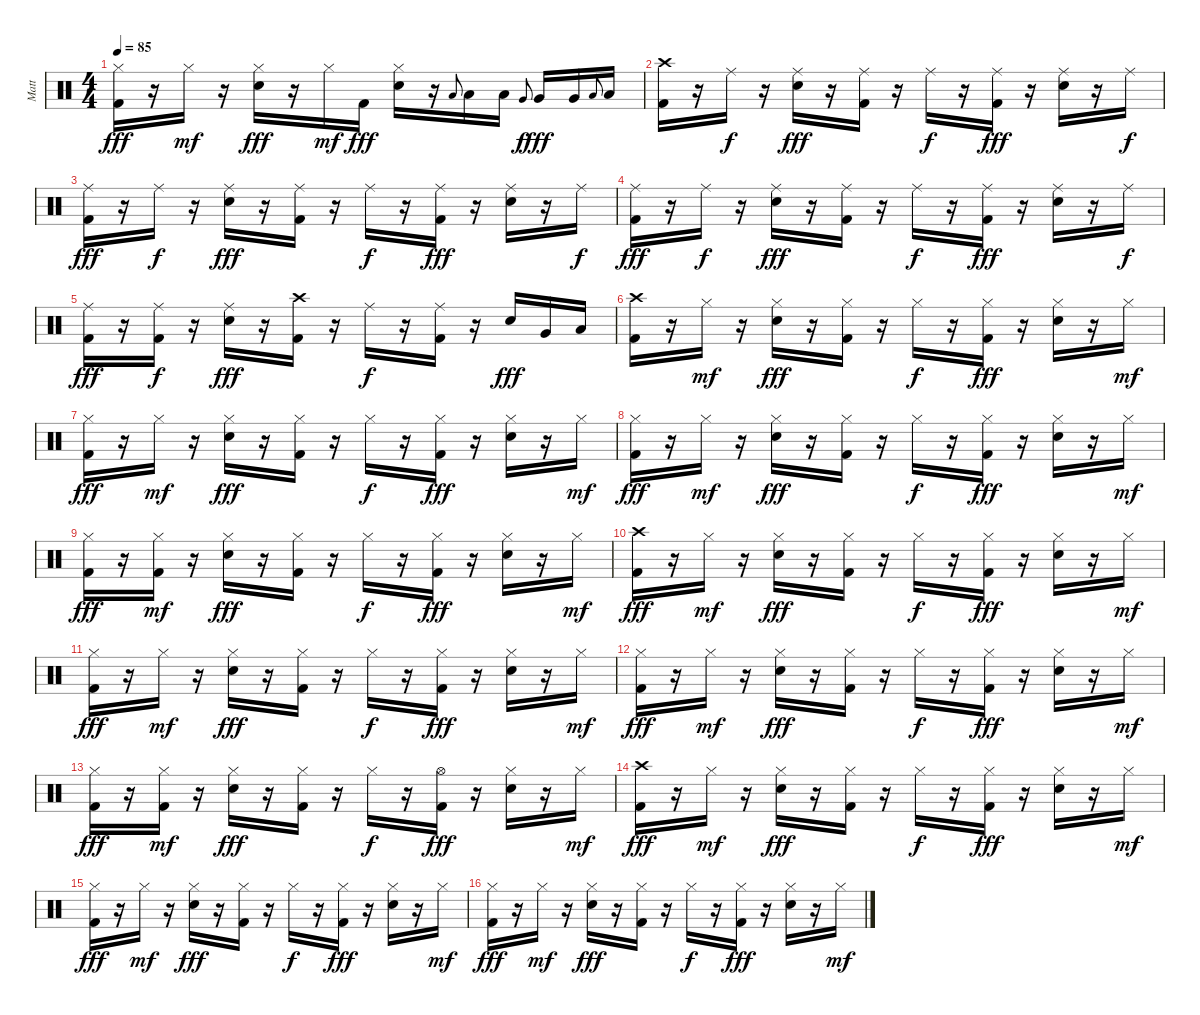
\track ("Matt" "Matt") {instrument percussion}
\staff {score}
\articulation defaults
\ts (4 4)
\tempo 85
\clef neutral
\ks c
("Hi-Hat (closed)" "Kick (hit) 2").16{dy fff} r.16 "Hi-Hat (closed)".16{dy mf} r.16 ("Hi-Hat (closed)" "Electric Snare (hit)").16{dy fff} r.16 "Hi-Hat (closed)".16{dy mf} "Kick (hit) 2".16{dy fff} ("Hi-Hat (closed)" "Electric Snare (hit)").16 r.16 "Low Tom (hit)".8{gr onbeat} "Low Tom (hit)".16 "Low Tom (hit)".16 "Very Low Tom (hit)".8{gr onbeat dy f} "Very Low Tom (hit)".16{dy fff} "Very Low Tom (hit)".16 "Low Floor Tom (hit)".8{gr onbeat} "Low Floor Tom (hit)".16 |
("Crash high (hit)" "Kick (hit) 2").16 r.16 "Ride (middle)".16{dy f} r.16 ("Ride (middle)" "Electric Snare (hit)").16{dy fff} r.16 ("Ride (middle)" "Kick (hit) 2").16 r.16 "Ride (middle)".16{dy f} r.16 ("Ride (middle)" "Kick (hit) 2").16{dy fff} r.16 ("Ride (middle)" "Electric Snare (hit)").16 r.16 "Ride (middle)".16{dy f} |
("Ride (middle)" "Kick (hit) 2").16{dy fff} r.16 "Ride (middle)".16{dy f} r.16 ("Ride (middle)" "Electric Snare (hit)").16{dy fff} r.16 ("Ride (middle)" "Kick (hit) 2").16 r.16 "Ride (middle)".16{dy f} r.16 ("Ride (middle)" "Kick (hit) 2").16{dy fff} r.16 ("Ride (middle)" "Electric Snare (hit)").16 r.16 "Ride (middle)".16{dy f} |
("Ride (middle)" "Kick (hit) 2").16{dy fff} r.16 "Ride (middle)".16{dy f} r.16 ("Ride (middle)" "Electric Snare (hit)").16{dy fff} r.16 ("Ride (middle)" "Kick (hit) 2").16 r.16 "Ride (middle)".16{dy f} r.16 ("Ride (middle)" "Kick (hit) 2").16{dy fff} r.16 ("Ride (middle)" "Electric Snare (hit)").16 r.16 "Ride (middle)".16{dy f} |
("Ride (middle)" "Kick (hit) 2").16{dy fff} r.16 ("Ride (middle)" "Kick (hit) 2").16{dy f} r.16 ("Ride (middle)" "Electric Snare (hit)").16{dy fff} r.16 ("Crash high (hit)" "Kick (hit) 2").16 r.16 "Ride (middle)".16{dy f} r.16 ("Ride (middle)" "Kick (hit) 2").16 r.16 "Electric Snare (hit)".16{dy fff} "Very Low Tom (hit)".16 "Low Floor Tom (hit)".16 |
("Crash high (hit)" "Kick (hit) 2").16 r.16 "Hi-Hat (closed)".16{dy mf} r.16 ("Hi-Hat (closed)" "Electric Snare (hit)").16{dy fff} r.16 ("Hi-Hat (closed)" "Kick (hit) 2").16 r.16 "Hi-Hat (closed)".16{dy f} r.16 ("Hi-Hat (closed)" "Kick (hit) 2").16{dy fff} r.16 ("Hi-Hat (closed)" "Electric Snare (hit)").16 r.16 "Hi-Hat (closed)".16{dy mf} |
("Hi-Hat (closed)" "Kick (hit) 2").16{dy fff} r.16 "Hi-Hat (closed)".16{dy mf} r.16 ("Hi-Hat (closed)" "Electric Snare (hit)").16{dy fff} r.16 ("Hi-Hat (closed)" "Kick (hit) 2").16 r.16 "Hi-Hat (closed)".16{dy f} r.16 ("Hi-Hat (closed)" "Kick (hit) 2").16{dy fff} r.16 ("Hi-Hat (closed)" "Electric Snare (hit)").16 r.16 "Hi-Hat (closed)".16{dy mf} |
("Hi-Hat (closed)" "Kick (hit) 2").16{dy fff} r.16 "Hi-Hat (closed)".16{dy mf} r.16 ("Hi-Hat (closed)" "Electric Snare (hit)").16{dy fff} r.16 ("Hi-Hat (closed)" "Kick (hit) 2").16 r.16 "Hi-Hat (closed)".16{dy f} r.16 ("Hi-Hat (closed)" "Kick (hit) 2").16{dy fff} r.16 ("Hi-Hat (closed)" "Electric Snare (hit)").16 r.16 "Hi-Hat (closed)".16{dy mf} |
("Hi-Hat (closed)" "Kick (hit) 2").16{dy fff} r.16 ("Hi-Hat (closed)" "Kick (hit) 2").16{dy mf} r.16 ("Hi-Hat (closed)" "Electric Snare (hit)").16{dy fff} r.16 ("Hi-Hat (closed)" "Kick (hit) 2").16 r.16 "Hi-Hat (closed)".16{dy f} r.16 ("Hi-Hat (closed)" "Kick (hit) 2").16{dy fff} r.16 ("Hi-Hat (closed)" "Electric Snare (hit)").16 r.16 "Hi-Hat (closed)".16{dy mf} |
("Crash high (hit)" "Kick (hit) 2").16{dy fff} r.16 "Hi-Hat (closed)".16{dy mf} r.16 ("Hi-Hat (closed)" "Electric Snare (hit)").16{dy fff} r.16 ("Hi-Hat (closed)" "Kick (hit) 2").16 r.16 "Hi-Hat (closed)".16{dy f} r.16 ("Hi-Hat (closed)" "Kick (hit) 2").16{dy fff} r.16 ("Hi-Hat (closed)" "Electric Snare (hit)").16 r.16 "Hi-Hat (closed)".16{dy mf} |
("Hi-Hat (closed)" "Kick (hit) 2").16{dy fff} r.16 "Hi-Hat (closed)".16{dy mf} r.16 ("Hi-Hat (closed)" "Electric Snare (hit)").16{dy fff} r.16 ("Hi-Hat (closed)" "Kick (hit) 2").16 r.16 "Hi-Hat (closed)".16{dy f} r.16 ("Hi-Hat (closed)" "Kick (hit) 2").16{dy fff} r.16 ("Hi-Hat (closed)" "Electric Snare (hit)").16 r.16 "Hi-Hat (closed)".16{dy mf} |
("Hi-Hat (closed)" "Kick (hit) 2").16{dy fff} r.16 "Hi-Hat (closed)".16{dy mf} r.16 ("Hi-Hat (closed)" "Electric Snare (hit)").16{dy fff} r.16 ("Hi-Hat (closed)" "Kick (hit) 2").16 r.16 "Hi-Hat (closed)".16{dy f} r.16 ("Hi-Hat (closed)" "Kick (hit) 2").16{dy fff} r.16 ("Hi-Hat (closed)" "Electric Snare (hit)").16 r.16 "Hi-Hat (closed)".16{dy mf} |
("Hi-Hat (closed)" "Kick (hit) 2").16{dy fff} r.16 ("Hi-Hat (closed)" "Kick (hit) 2").16{dy mf} r.16 ("Hi-Hat (closed)" "Electric Snare (hit)").16{dy fff} r.16 ("Hi-Hat (closed)" "Kick (hit) 2").16 r.16 "Hi-Hat (closed)".16{dy f} r.16 ("Hi-Hat (open)" "Kick (hit) 2").16{dy fff} r.16 ("Hi-Hat (closed)" "Electric Snare (hit)").16 r.16 "Hi-Hat (closed)".16{dy mf} |
("Crash high (hit)" "Kick (hit) 2").16{dy fff} r.16 "Hi-Hat (closed)".16{dy mf} r.16 ("Hi-Hat (closed)" "Electric Snare (hit)").16{dy fff} r.16 ("Hi-Hat (closed)" "Kick (hit) 2").16 r.16 "Hi-Hat (closed)".16{dy f} r.16 ("Hi-Hat (closed)" "Kick (hit) 2").16{dy fff} r.16 ("Hi-Hat (closed)" "Electric Snare (hit)").16 r.16 "Hi-Hat (closed)".16{dy mf} |
("Hi-Hat (closed)" "Kick (hit) 2").16{dy fff} r.16 "Hi-Hat (closed)".16{dy mf} r.16 ("Hi-Hat (closed)" "Electric Snare (hit)").16{dy fff} r.16 ("Hi-Hat (closed)" "Kick (hit) 2").16 r.16 "Hi-Hat (closed)".16{dy f} r.16 ("Hi-Hat (closed)" "Kick (hit) 2").16{dy fff} r.16 ("Hi-Hat (closed)" "Electric Snare (hit)").16 r.16 "Hi-Hat (closed)".16{dy mf} |
("Hi-Hat (closed)" "Kick (hit) 2").16{dy fff} r.16 "Hi-Hat (closed)".16{dy mf} r.16 ("Hi-Hat (closed)" "Electric Snare (hit)").16{dy fff} r.16 ("Hi-Hat (closed)" "Kick (hit) 2").16 r.16 "Hi-Hat (closed)".16{dy f} r.16 ("Hi-Hat (closed)" "Kick (hit) 2").16{dy fff} r.16 ("Hi-Hat (closed)" "Electric Snare (hit)").16 r.16 "Hi-Hat (closed)".16{dy mf}
